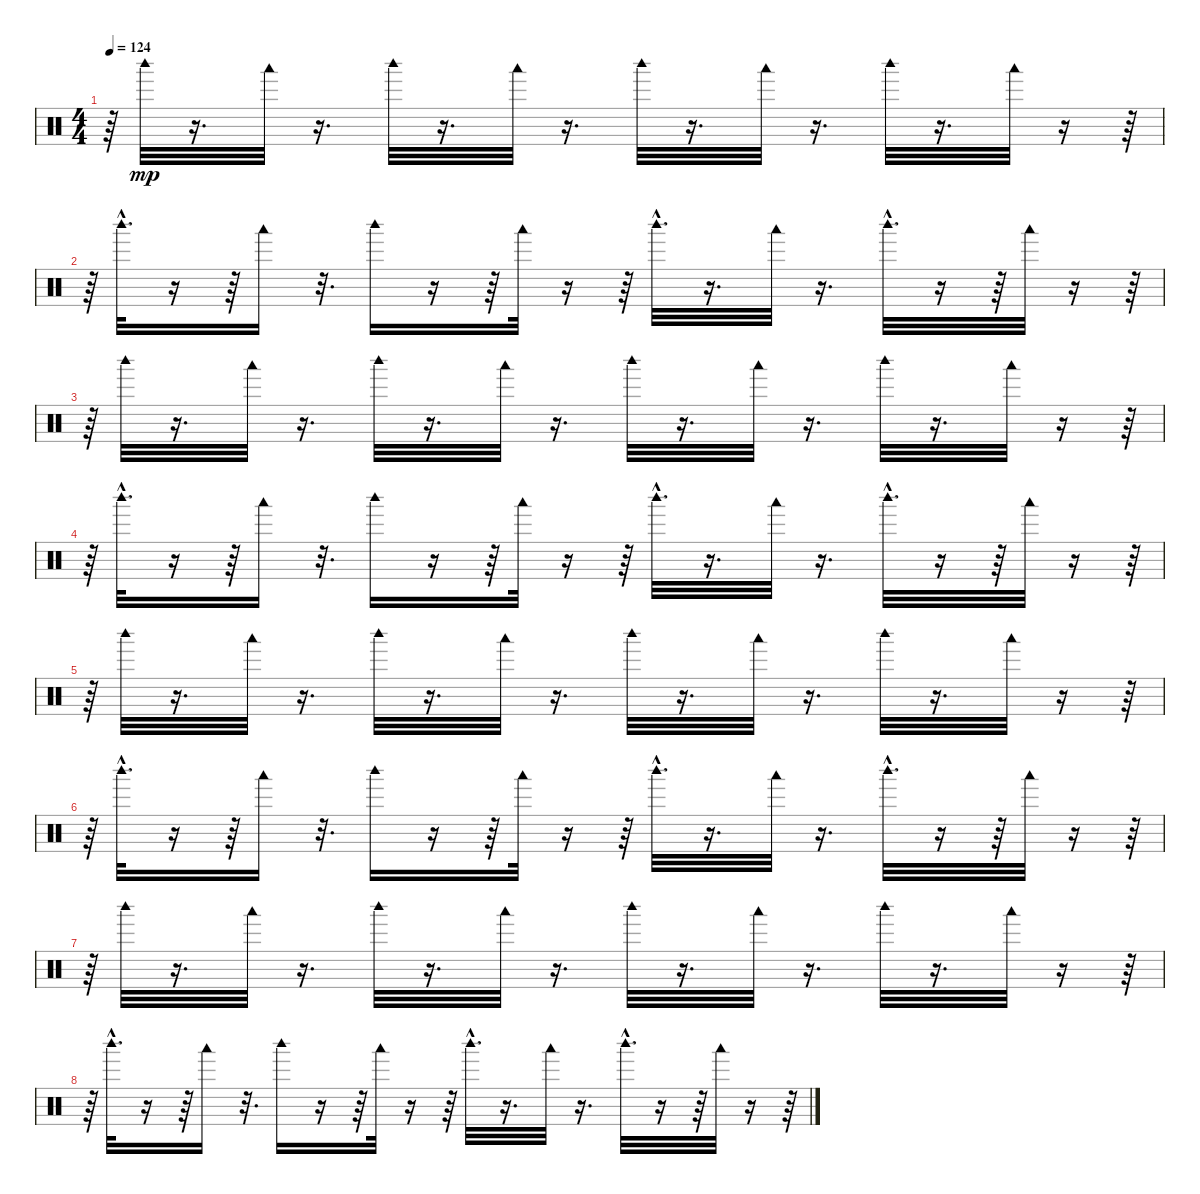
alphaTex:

\track "" {instrument percussion}
\staff {score}
\articulation defaults
\ts (4 4)
\tempo 124
\clef neutral
\ks c
r.64{dy mp} "Woodblock high (hit)".32 r.16{d} "Woodblock low (hit)".32 r.16{d} "Woodblock high (hit)".32 r.16{d} "Woodblock low (hit)".32 r.16{d} "Woodblock high (hit)".32 r.16{d} "Woodblock low (hit)".32 r.16{d} "Woodblock high (hit)".32 r.16{d} "Woodblock low (hit)".32 r.16 r.64 |
r.64 "Woodblock high (hit)"{hac}.32{d} r.16 r.64 "Woodblock low (hit)".16 r.32{d} "Woodblock high (hit)".16 r.16 r.64 "Woodblock low (hit)".32 r.16 r.64 "Woodblock high (hit)"{hac}.32{d} r.16{d} "Woodblock low (hit)".32 r.16{d} "Woodblock high (hit)"{hac}.32{d} r.16 r.64 "Woodblock low (hit)".32 r.16 r.64 |
r.64 "Woodblock high (hit)".32 r.16{d} "Woodblock low (hit)".32 r.16{d} "Woodblock high (hit)".32 r.16{d} "Woodblock low (hit)".32 r.16{d} "Woodblock high (hit)".32 r.16{d} "Woodblock low (hit)".32 r.16{d} "Woodblock high (hit)".32 r.16{d} "Woodblock low (hit)".32 r.16 r.64 |
r.64 "Woodblock high (hit)"{hac}.32{d} r.16 r.64 "Woodblock low (hit)".16 r.32{d} "Woodblock high (hit)".16 r.16 r.64 "Woodblock low (hit)".32 r.16 r.64 "Woodblock high (hit)"{hac}.32{d} r.16{d} "Woodblock low (hit)".32 r.16{d} "Woodblock high (hit)"{hac}.32{d} r.16 r.64 "Woodblock low (hit)".32 r.16 r.64 |
r.64 "Woodblock high (hit)".32 r.16{d} "Woodblock low (hit)".32 r.16{d} "Woodblock high (hit)".32 r.16{d} "Woodblock low (hit)".32 r.16{d} "Woodblock high (hit)".32 r.16{d} "Woodblock low (hit)".32 r.16{d} "Woodblock high (hit)".32 r.16{d} "Woodblock low (hit)".32 r.16 r.64 |
r.64 "Woodblock high (hit)"{hac}.32{d} r.16 r.64 "Woodblock low (hit)".16 r.32{d} "Woodblock high (hit)".16 r.16 r.64 "Woodblock low (hit)".32 r.16 r.64 "Woodblock high (hit)"{hac}.32{d} r.16{d} "Woodblock low (hit)".32 r.16{d} "Woodblock high (hit)"{hac}.32{d} r.16 r.64 "Woodblock low (hit)".32 r.16 r.64 |
r.64 "Woodblock high (hit)".32 r.16{d} "Woodblock low (hit)".32 r.16{d} "Woodblock high (hit)".32 r.16{d} "Woodblock low (hit)".32 r.16{d} "Woodblock high (hit)".32 r.16{d} "Woodblock low (hit)".32 r.16{d} "Woodblock high (hit)".32 r.16{d} "Woodblock low (hit)".32 r.16 r.64 |
r.64 "Woodblock high (hit)"{hac}.32{d} r.16 r.64 "Woodblock low (hit)".16 r.32{d} "Woodblock high (hit)".16 r.16 r.64 "Woodblock low (hit)".32 r.16 r.64 "Woodblock high (hit)"{hac}.32{d} r.16{d} "Woodblock low (hit)".32 r.16{d} "Woodblock high (hit)"{hac}.32{d} r.16 r.64 "Woodblock low (hit)".32 r.16 r.64
